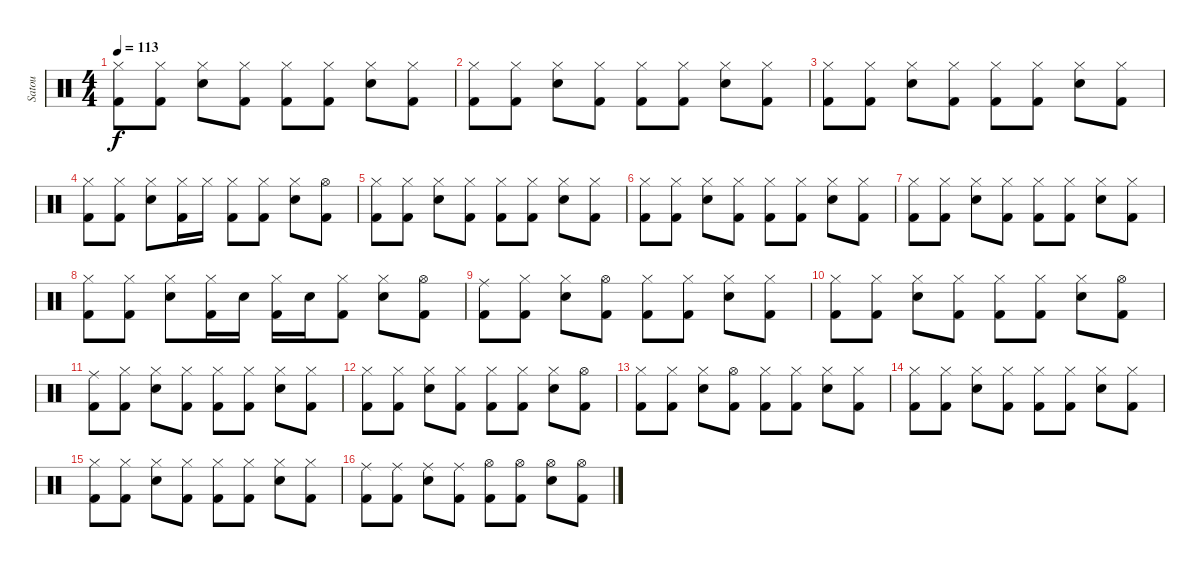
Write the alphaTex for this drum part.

\track ("Satou" "Satou") {instrument percussion}
\staff {score}
\articulation defaults
\ts (4 4)
\tempo 113
\clef neutral
\ks c
("Hi-Hat (closed)" "Kick (hit) 2").8{dy f} ("Hi-Hat (closed)" "Kick (hit) 2").8 ("Hi-Hat (closed)" "Electric Snare (hit)").8 ("Hi-Hat (closed)" "Kick (hit) 2").8 ("Hi-Hat (closed)" "Kick (hit) 2").8 ("Hi-Hat (closed)" "Kick (hit) 2").8 ("Hi-Hat (closed)" "Electric Snare (hit)").8 ("Hi-Hat (closed)" "Kick (hit) 2").8 |
("Hi-Hat (closed)" "Kick (hit) 2").8 ("Hi-Hat (closed)" "Kick (hit) 2").8 ("Hi-Hat (closed)" "Electric Snare (hit)").8 ("Hi-Hat (closed)" "Kick (hit) 2").8 ("Hi-Hat (closed)" "Kick (hit) 2").8 ("Hi-Hat (closed)" "Kick (hit) 2").8 ("Hi-Hat (closed)" "Electric Snare (hit)").8 ("Hi-Hat (closed)" "Kick (hit) 2").8 |
("Hi-Hat (closed)" "Kick (hit) 2").8 ("Hi-Hat (closed)" "Kick (hit) 2").8 ("Hi-Hat (closed)" "Electric Snare (hit)").8 ("Hi-Hat (closed)" "Kick (hit) 2").8 ("Hi-Hat (closed)" "Kick (hit) 2").8 ("Hi-Hat (closed)" "Kick (hit) 2").8 ("Hi-Hat (closed)" "Electric Snare (hit)").8 ("Hi-Hat (closed)" "Kick (hit) 2").8 |
("Hi-Hat (closed)" "Kick (hit) 2").8 ("Hi-Hat (closed)" "Kick (hit) 2").8 ("Hi-Hat (closed)" "Electric Snare (hit)").8 ("Hi-Hat (closed)" "Kick (hit) 2").16 "Hi-Hat (closed)".16 ("Hi-Hat (closed)" "Kick (hit) 2").8 ("Hi-Hat (closed)" "Kick (hit) 2").8 ("Hi-Hat (closed)" "Electric Snare (hit)").8 ("Hi-Hat (open)" "Kick (hit) 2").8 |
("Hi-Hat (closed)" "Kick (hit) 2").8 ("Hi-Hat (closed)" "Kick (hit) 2").8 ("Hi-Hat (closed)" "Electric Snare (hit)").8 ("Hi-Hat (closed)" "Kick (hit) 2").8 ("Hi-Hat (closed)" "Kick (hit) 2").8 ("Hi-Hat (closed)" "Kick (hit) 2").8 ("Hi-Hat (closed)" "Electric Snare (hit)").8 ("Hi-Hat (closed)" "Kick (hit) 2").8 |
("Hi-Hat (closed)" "Kick (hit) 2").8 ("Hi-Hat (closed)" "Kick (hit) 2").8 ("Hi-Hat (closed)" "Electric Snare (hit)").8 ("Hi-Hat (closed)" "Kick (hit) 2").8 ("Hi-Hat (closed)" "Kick (hit) 2").8 ("Hi-Hat (closed)" "Kick (hit) 2").8 ("Hi-Hat (closed)" "Electric Snare (hit)").8 ("Hi-Hat (closed)" "Kick (hit) 2").8 |
("Hi-Hat (closed)" "Kick (hit) 2").8 ("Hi-Hat (closed)" "Kick (hit) 2").8 ("Hi-Hat (closed)" "Electric Snare (hit)").8 ("Hi-Hat (closed)" "Kick (hit) 2").8 ("Hi-Hat (closed)" "Kick (hit) 2").8 ("Hi-Hat (closed)" "Kick (hit) 2").8 ("Hi-Hat (closed)" "Electric Snare (hit)").8 ("Hi-Hat (closed)" "Kick (hit) 2").8 |
("Hi-Hat (closed)" "Kick (hit) 2").8 ("Hi-Hat (closed)" "Kick (hit) 2").8 ("Hi-Hat (closed)" "Electric Snare (hit)").8 ("Hi-Hat (closed)" "Kick (hit) 2").16 "Electric Snare (hit)".16 ("Hi-Hat (closed)" "Kick (hit) 2").16 "Electric Snare (hit)".16 ("Hi-Hat (closed)" "Kick (hit) 2").8 ("Hi-Hat (closed)" "Electric Snare (hit)").8 ("Hi-Hat (open)" "Kick (hit) 2").8 |
("Ride (middle)" "Kick (hit) 2").8 ("Hi-Hat (closed)" "Kick (hit) 2").8 ("Hi-Hat (closed)" "Electric Snare (hit)").8 ("Hi-Hat (open)" "Kick (hit) 2").8 ("Hi-Hat (closed)" "Kick (hit) 2").8 ("Hi-Hat (closed)" "Kick (hit) 2").8 ("Hi-Hat (closed)" "Electric Snare (hit)").8 ("Hi-Hat (closed)" "Kick (hit) 2").8 |
("Hi-Hat (closed)" "Kick (hit) 2").8 ("Hi-Hat (closed)" "Kick (hit) 2").8 ("Hi-Hat (closed)" "Electric Snare (hit)").8 ("Hi-Hat (closed)" "Kick (hit) 2").8 ("Hi-Hat (closed)" "Kick (hit) 2").8 ("Hi-Hat (closed)" "Kick (hit) 2").8 ("Hi-Hat (closed)" "Electric Snare (hit)").8 ("Hi-Hat (open)" "Kick (hit) 2").8 |
("Ride (middle)" "Kick (hit) 2").8 ("Hi-Hat (closed)" "Kick (hit) 2").8 ("Hi-Hat (closed)" "Electric Snare (hit)").8 ("Hi-Hat (closed)" "Kick (hit) 2").8 ("Hi-Hat (closed)" "Kick (hit) 2").8 ("Hi-Hat (closed)" "Kick (hit) 2").8 ("Hi-Hat (closed)" "Electric Snare (hit)").8 ("Hi-Hat (closed)" "Kick (hit) 2").8 |
("Hi-Hat (closed)" "Kick (hit) 2").8 ("Hi-Hat (closed)" "Kick (hit) 2").8 ("Hi-Hat (closed)" "Electric Snare (hit)").8 ("Hi-Hat (closed)" "Kick (hit) 2").8 ("Hi-Hat (closed)" "Kick (hit) 2").8 ("Hi-Hat (closed)" "Kick (hit) 2").8 ("Hi-Hat (closed)" "Electric Snare (hit)").8 ("Hi-Hat (open)" "Kick (hit) 2").8 |
("Hi-Hat (closed)" "Kick (hit) 2").8 ("Hi-Hat (closed)" "Kick (hit) 2").8 ("Hi-Hat (closed)" "Electric Snare (hit)").8 ("Hi-Hat (open)" "Kick (hit) 2").8 ("Hi-Hat (closed)" "Kick (hit) 2").8 ("Hi-Hat (closed)" "Kick (hit) 2").8 ("Hi-Hat (closed)" "Electric Snare (hit)").8 ("Hi-Hat (closed)" "Kick (hit) 2").8 |
("Hi-Hat (closed)" "Kick (hit) 2").8 ("Hi-Hat (closed)" "Kick (hit) 2").8 ("Hi-Hat (closed)" "Electric Snare (hit)").8 ("Hi-Hat (closed)" "Kick (hit) 2").8 ("Hi-Hat (closed)" "Kick (hit) 2").8 ("Hi-Hat (closed)" "Kick (hit) 2").8 ("Hi-Hat (closed)" "Electric Snare (hit)").8 ("Hi-Hat (closed)" "Kick (hit) 2").8 |
("Hi-Hat (closed)" "Kick (hit) 2").8 ("Hi-Hat (closed)" "Kick (hit) 2").8 ("Hi-Hat (closed)" "Electric Snare (hit)").8 ("Hi-Hat (closed)" "Kick (hit) 2").8 ("Hi-Hat (closed)" "Kick (hit) 2").8 ("Hi-Hat (closed)" "Kick (hit) 2").8 ("Hi-Hat (closed)" "Electric Snare (hit)").8 ("Hi-Hat (closed)" "Kick (hit) 2").8 |
("Ride (middle)" "Kick (hit) 2").8 ("Ride (middle)" "Kick (hit) 2").8 ("Ride (middle)" "Electric Snare (hit)").8 ("Ride (middle)" "Kick (hit) 2").8 ("Hi-Hat (open)" "Kick (hit) 2").8 ("Hi-Hat (open)" "Kick (hit) 2").8 ("Hi-Hat (open)" "Electric Snare (hit)").8 ("Hi-Hat (open)" "Kick (hit) 2").8
